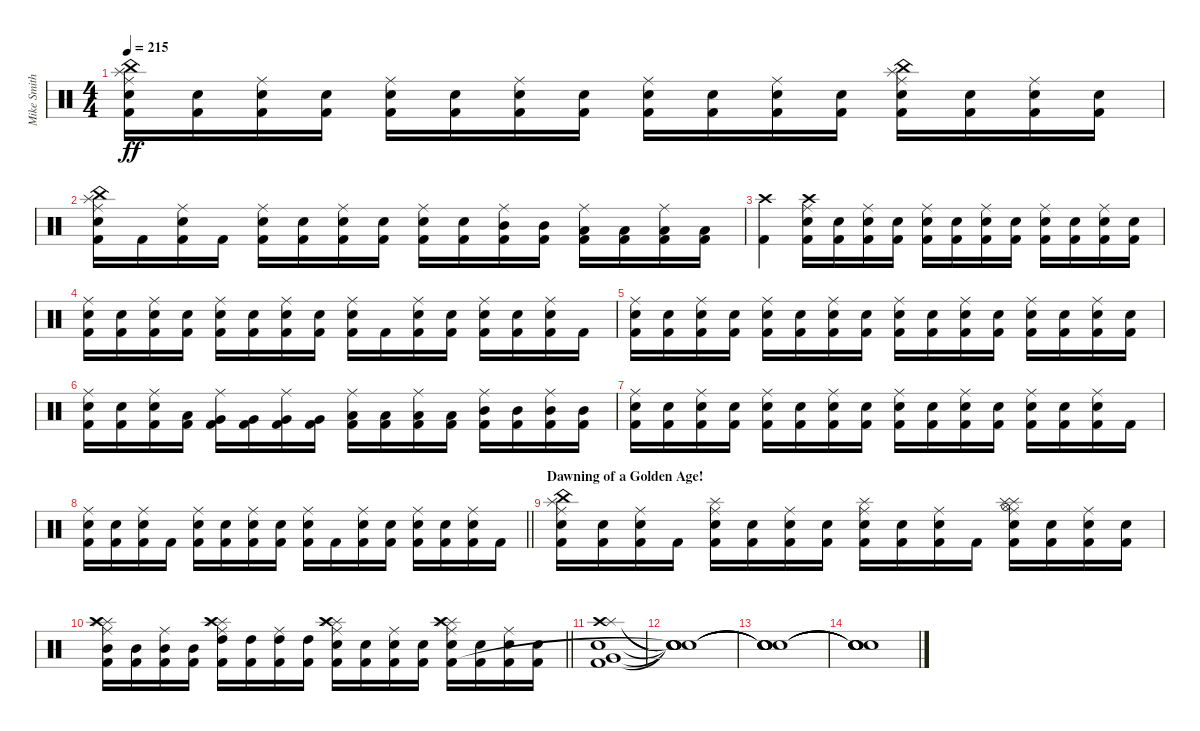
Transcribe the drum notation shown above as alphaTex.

\track ("Mike Smith (Suffocation)" "Mike Smith") {instrument percussion}
\staff {score}
\articulation defaults
\ts (4 4)
\tempo 215
\clef neutral
\ks c
("Ride (middle)" "China (hit)" "Snare (hit) 2" "Splash (hit)" "Kick (hit) 2").16{dy ff} ("Snare (hit) 2" "Kick (hit) 2").16 ("Ride (middle)" "Snare (hit) 2" "Kick (hit) 2").16 ("Snare (hit) 2" "Kick (hit) 2").16 ("Ride (middle)" "Snare (hit) 2" "Kick (hit) 2").16 ("Snare (hit) 2" "Kick (hit) 2").16 ("Ride (middle)" "Snare (hit) 2" "Kick (hit) 2").16 ("Snare (hit) 2" "Kick (hit) 2").16 ("Ride (middle)" "Snare (hit) 2" "Kick (hit) 2").16 ("Snare (hit) 2" "Kick (hit) 2").16 ("Ride (middle)" "Snare (hit) 2" "Kick (hit) 2").16 ("Snare (hit) 2" "Kick (hit) 2").16 ("Ride (middle)" "China (hit)" "Snare (hit) 2" "Splash (hit)" "Kick (hit) 2").16 ("Snare (hit) 2" "Kick (hit) 2").16 ("Ride (middle)" "Snare (hit) 2" "Kick (hit) 2").16 ("Snare (hit) 2" "Kick (hit) 2").16 |
("Ride (middle)" "China (hit)" "Snare (hit) 2" "Splash (hit)" "Kick (hit) 2").16 "Kick (hit) 2".16 ("Ride (middle)" "Snare (hit) 2" "Kick (hit) 2").16 "Kick (hit) 2".16 ("Ride (middle)" "Snare (hit) 2" "Kick (hit) 2").16 ("Snare (hit) 2" "Kick (hit) 2").16 ("Ride (middle)" "Snare (hit) 2" "Kick (hit) 2").16 ("Snare (hit) 2" "Kick (hit) 2").16 ("Ride (middle)" "Snare (hit) 2" "Kick (hit) 2").16 ("Snare (hit) 2" "Kick (hit) 2").16 ("Ride (middle)" "Mid Tom (hit)" "Kick (hit) 2").16 ("Mid Tom (hit)" "Kick (hit) 2").16 ("Ride (middle)" "Low Tom (hit)" "Kick (hit) 2").16 ("Low Tom (hit)" "Kick (hit) 2").16 ("Ride (middle)" "Low Tom (hit)" "Kick (hit) 2").16 ("Low Tom (hit)" "Kick (hit) 2").16 |
("Crash high (hit)" "Kick (hit) 2").4 ("Crash high (hit)" "Ride (middle)" "Snare (hit) 2" "Kick (hit) 2").16 ("Snare (hit) 2" "Kick (hit) 2").16 ("Ride (middle)" "Snare (hit) 2" "Kick (hit) 2").16 ("Snare (hit) 2" "Kick (hit) 2").16 ("Ride (middle)" "Snare (hit) 2" "Kick (hit) 2").16 ("Snare (hit) 2" "Kick (hit) 2").16 ("Ride (middle)" "Snare (hit) 2" "Kick (hit) 2").16 ("Snare (hit) 2" "Kick (hit) 2").16 ("Ride (middle)" "Snare (hit) 2" "Kick (hit) 2").16 ("Snare (hit) 2" "Kick (hit) 2").16 ("Ride (middle)" "Snare (hit) 2" "Kick (hit) 2").16 ("Snare (hit) 2" "Kick (hit) 2").16 |
("Ride (middle)" "Snare (hit) 2" "Kick (hit) 2").16 ("Snare (hit) 2" "Kick (hit) 2").16 ("Ride (middle)" "Snare (hit) 2" "Kick (hit) 2").16 ("Snare (hit) 2" "Kick (hit) 2").16 ("Ride (middle)" "Snare (hit) 2" "Kick (hit) 2").16 ("Snare (hit) 2" "Kick (hit) 2").16 ("Ride (middle)" "Snare (hit) 2" "Kick (hit) 2").16 ("Snare (hit) 2" "Kick (hit) 2").16 ("Ride (middle)" "Snare (hit) 2" "Kick (hit) 2").16 "Kick (hit) 2".16 ("Ride (middle)" "Snare (hit) 2" "Kick (hit) 2").16 ("Snare (hit) 2" "Kick (hit) 2").16 ("Ride (middle)" "Snare (hit) 2" "Kick (hit) 2").16 ("Snare (hit) 2" "Kick (hit) 2").16 ("Ride (middle)" "Snare (hit) 2" "Kick (hit) 2").16 "Kick (hit) 2".16 |
("Ride (middle)" "Snare (hit) 2" "Kick (hit) 2").16 ("Snare (hit) 2" "Kick (hit) 2").16 ("Ride (middle)" "Snare (hit) 2" "Kick (hit) 2").16 ("Snare (hit) 2" "Kick (hit) 2").16 ("Ride (middle)" "Snare (hit) 2" "Kick (hit) 2").16 ("Snare (hit) 2" "Kick (hit) 2").16 ("Ride (middle)" "Snare (hit) 2" "Kick (hit) 2").16 ("Snare (hit) 2" "Kick (hit) 2").16 ("Ride (middle)" "Snare (hit) 2" "Kick (hit) 2").16 ("Snare (hit) 2" "Kick (hit) 2").16 ("Ride (middle)" "Snare (hit) 2" "Kick (hit) 2").16 ("Snare (hit) 2" "Kick (hit) 2").16 ("Ride (middle)" "Snare (hit) 2" "Kick (hit) 2").16 ("Snare (hit) 2" "Kick (hit) 2").16 ("Ride (middle)" "Snare (hit) 2" "Kick (hit) 2").16 ("Snare (hit) 2" "Kick (hit) 2").16 |
("Ride (middle)" "Snare (hit) 2" "Kick (hit) 2").16 ("Snare (hit) 2" "Kick (hit) 2").16 ("Ride (middle)" "Snare (hit) 2" "Kick (hit) 2").16 ("Low Tom (hit)" "Kick (hit) 2").16 ("Ride (middle)" "Very Low Tom (hit)" "Kick (hit) 2").16 ("Very Low Tom (hit)" "Kick (hit) 2").16 ("Ride (middle)" "Very Low Tom (hit)" "Kick (hit) 2").16 ("Very Low Tom (hit)" "Kick (hit) 2").16 ("Ride (middle)" "Low Tom (hit)" "Kick (hit) 2").16 ("Low Tom (hit)" "Kick (hit) 2").16 ("Ride (middle)" "Low Tom (hit)" "Kick (hit) 2").16 ("Low Tom (hit)" "Kick (hit) 2").16 ("Ride (middle)" "Mid Tom (hit)" "Kick (hit) 2").16 ("Mid Tom (hit)" "Kick (hit) 2").16 ("Ride (middle)" "Mid Tom (hit)" "Kick (hit) 2").16 ("Mid Tom (hit)" "Kick (hit) 2").16 |
("Ride (middle)" "Snare (hit) 2" "Kick (hit) 2").16 ("Snare (hit) 2" "Kick (hit) 2").16 ("Ride (middle)" "Snare (hit) 2" "Kick (hit) 2").16 ("Snare (hit) 2" "Kick (hit) 2").16 ("Ride (middle)" "Snare (hit) 2" "Kick (hit) 2").16 ("Snare (hit) 2" "Kick (hit) 2").16 ("Ride (middle)" "Snare (hit) 2" "Kick (hit) 2").16 ("Snare (hit) 2" "Kick (hit) 2").16 ("Ride (middle)" "Snare (hit) 2" "Kick (hit) 2").16 ("Snare (hit) 2" "Kick (hit) 2").16 ("Ride (middle)" "Snare (hit) 2" "Kick (hit) 2").16 ("Snare (hit) 2" "Kick (hit) 2").16 ("Ride (middle)" "Snare (hit) 2" "Kick (hit) 2").16 ("Snare (hit) 2" "Kick (hit) 2").16 ("Ride (middle)" "Snare (hit) 2" "Kick (hit) 2").16 "Kick (hit) 2".16 |
\barLineRight lightlight
("Ride (middle)" "Snare (hit) 2" "Kick (hit) 2").16 ("Snare (hit) 2" "Kick (hit) 2").16 ("Ride (middle)" "Snare (hit) 2" "Kick (hit) 2").16 "Kick (hit) 2".16 ("Ride (middle)" "Snare (hit) 2" "Kick (hit) 2").16 ("Snare (hit) 2" "Kick (hit) 2").16 ("Ride (middle)" "Snare (hit) 2" "Kick (hit) 2").16 ("Snare (hit) 2" "Kick (hit) 2").16 ("Ride (middle)" "Snare (hit) 2" "Kick (hit) 2").16 "Kick (hit) 2".16 ("Ride (middle)" "Snare (hit) 2" "Kick (hit) 2").16 ("Snare (hit) 2" "Kick (hit) 2").16 ("Ride (middle)" "Snare (hit) 2" "Kick (hit) 2").16 ("Snare (hit) 2" "Kick (hit) 2").16 ("Ride (middle)" "Snare (hit) 2" "Kick (hit) 2").16 "Kick (hit) 2".16 |
\section ("" "Dawning of a Golden Age!")
("Ride (middle)" "China (hit)" "Snare (hit) 2" "Splash (hit)" "Kick (hit) 2").16 ("Snare (hit) 2" "Kick (hit) 2").16 ("Ride (middle)" "Snare (hit) 2" "Kick (hit) 2").16 "Kick (hit) 2".16 ("Ride (middle)" "Splash (hit)" "Snare (hit) 2" "Kick (hit) 2").16 ("Snare (hit) 2" "Kick (hit) 2").16 ("Ride (middle)" "Snare (hit) 2" "Kick (hit) 2").16 ("Snare (hit) 2" "Kick (hit) 2").16 ("Ride (middle)" "Splash (hit)" "Snare (hit) 2" "Kick (hit) 2").16 ("Snare (hit) 2" "Kick (hit) 2").16 ("Ride (middle)" "Snare (hit) 2" "Kick (hit) 2").16 "Kick (hit) 2".16 ("Ride (middle)" "Splash (hit)" "Snare (hit) 2" "Splash (hit)" "Hi-Hat (open)" "Kick (hit) 2").16 ("Snare (hit) 2" "Kick (hit) 2").16 ("Ride (middle)" "Snare (hit) 2" "Kick (hit) 2").16 ("Snare (hit) 2" "Kick (hit) 2").16 |
\barLineRight lightlight
("Ride (middle)" "Splash (hit)" "Mid Tom (hit)" "Splash (hit)" "Crash high (hit)" "Kick (hit) 2").16 ("Mid Tom (hit)" "Kick (hit) 2").16 ("Ride (middle)" "Mid Tom (hit)" "Kick (hit) 2").16 ("Mid Tom (hit)" "Kick (hit) 2").16 ("Ride (middle)" "Splash (hit)" "High Tom (hit)" "Splash (hit)" "Crash high (hit)" "Kick (hit) 2").16 ("High Tom (hit)" "Kick (hit) 2").16 ("Ride (middle)" "High Tom (hit)" "Kick (hit) 2").16 ("High Tom (hit)" "Kick (hit) 2").16 ("Ride (middle)" "Splash (hit)" "Snare (hit) 2" "Crash high (hit)" "Splash (hit)" "Kick (hit) 2").16 ("Snare (hit) 2" "Kick (hit) 2").16 ("Ride (middle)" "Snare (hit) 2" "Kick (hit) 2").16 ("Snare (hit) 2" "Kick (hit) 2").16 ("Ride (middle)" "Splash (hit)" "Snare (hit) 2" "Splash (hit)" "Crash high (hit)" "Kick (hit) 2").16 ("Snare (hit) 2" "Kick (hit) 2").16 ("Ride (middle)" "Snare (hit) 2" "Kick (hit) 2").16 ("Snare (hit) 2" "Kick (hit) 2").16 |
("Crash high (hit)" "Splash (hit)" "Snare (hit) 2" "Very Low Tom (hit)" "Kick (hit) 2").1 |
("Snare (hit)"{t} "Snare (hit)"{t} "Snare (hit)"{t} "Snare (hit)"{t} "Snare (hit)"{t} "Snare (hit)"{t}).1 |
("Snare (hit)"{t} "Snare (hit)"{t} "Snare (hit)"{t} "Snare (hit)"{t} "Snare (hit)"{t} "Snare (hit)"{t}).1 |
("Snare (hit)"{t} "Snare (hit)"{t} "Snare (hit)"{t} "Snare (hit)"{t} "Snare (hit)"{t} "Snare (hit)"{t}).1
